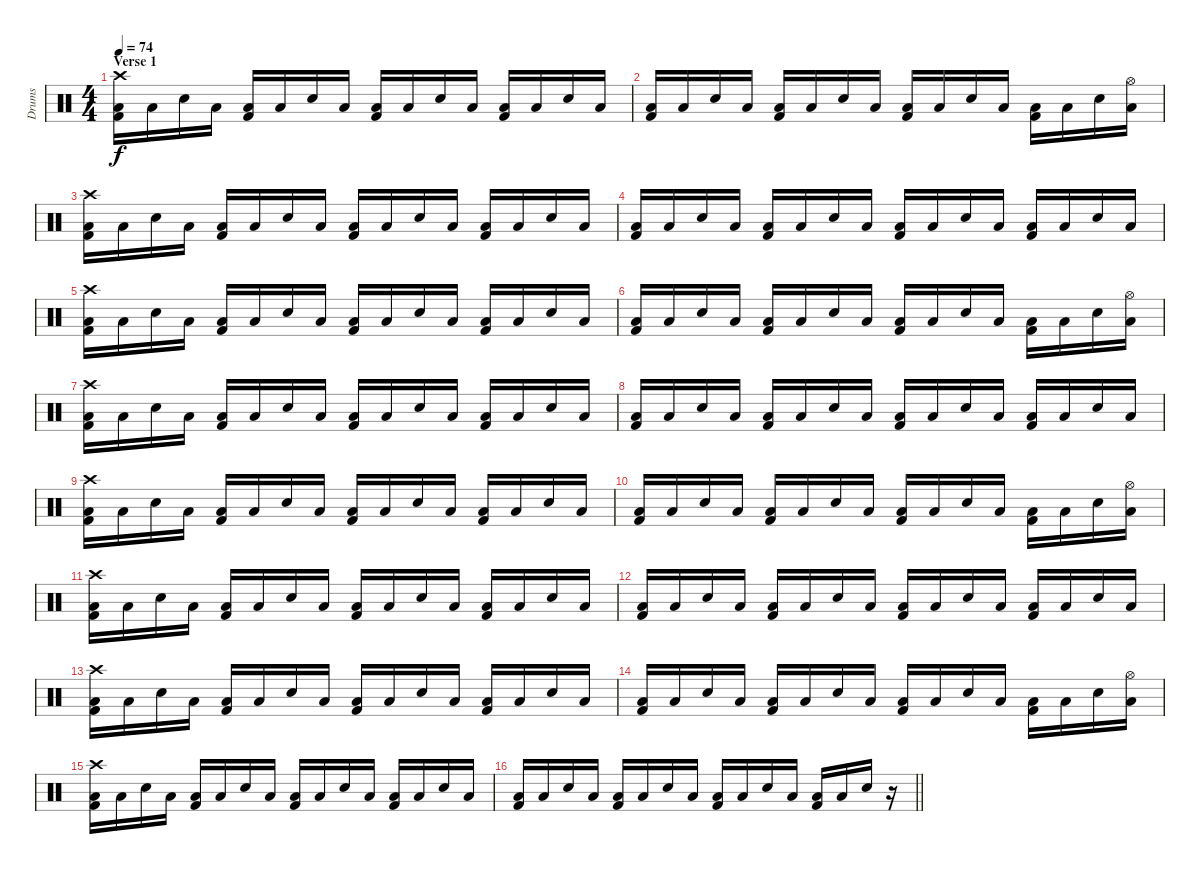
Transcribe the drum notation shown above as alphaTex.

\track ("Drums" "Drums") {instrument percussion}
\staff {score}
\articulation defaults
\ts (4 4)
\section ("" "Verse 1")
\tempo 74
\clef neutral
\ks c
("Crash high (hit)" "Low Floor Tom (hit)" "Kick (hit) 2").16{dy f} "Low Floor Tom (hit)".16 "Snare (hit) 2".16 "Low Floor Tom (hit)".16 ("Low Floor Tom (hit)" "Kick (hit) 2").16 "Low Floor Tom (hit)".16 "Snare (hit) 2".16 "Low Floor Tom (hit)".16 ("Low Floor Tom (hit)" "Kick (hit) 2").16 "Low Floor Tom (hit)".16 "Snare (hit) 2".16 "Low Floor Tom (hit)".16 ("Low Floor Tom (hit)" "Kick (hit) 2").16 "Low Floor Tom (hit)".16 "Snare (hit) 2".16 "Low Floor Tom (hit)".16 |
("Low Floor Tom (hit)" "Kick (hit) 2").16 "Low Floor Tom (hit)".16 "Snare (hit) 2".16 "Low Floor Tom (hit)".16 ("Low Floor Tom (hit)" "Kick (hit) 2").16 "Low Floor Tom (hit)".16 "Snare (hit) 2".16 "Low Floor Tom (hit)".16 ("Low Floor Tom (hit)" "Kick (hit) 2").16 "Low Floor Tom (hit)".16 "Snare (hit) 2".16 "Low Floor Tom (hit)".16 ("Low Floor Tom (hit)" "Kick (hit) 2").16 "Low Floor Tom (hit)".16 "Snare (hit) 2".16 ("Hi-Hat (open)" "Low Floor Tom (hit)").16 |
("Crash high (hit)" "Low Floor Tom (hit)" "Kick (hit) 2").16 "Low Floor Tom (hit)".16 "Snare (hit) 2".16 "Low Floor Tom (hit)".16 ("Low Floor Tom (hit)" "Kick (hit) 2").16 "Low Floor Tom (hit)".16 "Snare (hit) 2".16 "Low Floor Tom (hit)".16 ("Low Floor Tom (hit)" "Kick (hit) 2").16 "Low Floor Tom (hit)".16 "Snare (hit) 2".16 "Low Floor Tom (hit)".16 ("Low Floor Tom (hit)" "Kick (hit) 2").16 "Low Floor Tom (hit)".16 "Snare (hit) 2".16 "Low Floor Tom (hit)".16 |
("Low Floor Tom (hit)" "Kick (hit) 2").16 "Low Floor Tom (hit)".16 "Snare (hit) 2".16 "Low Floor Tom (hit)".16 ("Low Floor Tom (hit)" "Kick (hit) 2").16 "Low Floor Tom (hit)".16 "Snare (hit) 2".16 "Low Floor Tom (hit)".16 ("Low Floor Tom (hit)" "Kick (hit) 2").16 "Low Floor Tom (hit)".16 "Snare (hit) 2".16 "Low Floor Tom (hit)".16 ("Low Floor Tom (hit)" "Kick (hit) 2").16 "Low Floor Tom (hit)".16 "Snare (hit) 2".16 "Low Floor Tom (hit)".16 |
("Crash high (hit)" "Low Floor Tom (hit)" "Kick (hit) 2").16 "Low Floor Tom (hit)".16 "Snare (hit) 2".16 "Low Floor Tom (hit)".16 ("Low Floor Tom (hit)" "Kick (hit) 2").16 "Low Floor Tom (hit)".16 "Snare (hit) 2".16 "Low Floor Tom (hit)".16 ("Low Floor Tom (hit)" "Kick (hit) 2").16 "Low Floor Tom (hit)".16 "Snare (hit) 2".16 "Low Floor Tom (hit)".16 ("Low Floor Tom (hit)" "Kick (hit) 2").16 "Low Floor Tom (hit)".16 "Snare (hit) 2".16 "Low Floor Tom (hit)".16 |
("Low Floor Tom (hit)" "Kick (hit) 2").16 "Low Floor Tom (hit)".16 "Snare (hit) 2".16 "Low Floor Tom (hit)".16 ("Low Floor Tom (hit)" "Kick (hit) 2").16 "Low Floor Tom (hit)".16 "Snare (hit) 2".16 "Low Floor Tom (hit)".16 ("Low Floor Tom (hit)" "Kick (hit) 2").16 "Low Floor Tom (hit)".16 "Snare (hit) 2".16 "Low Floor Tom (hit)".16 ("Low Floor Tom (hit)" "Kick (hit) 2").16 "Low Floor Tom (hit)".16 "Snare (hit) 2".16 ("Hi-Hat (open)" "Low Floor Tom (hit)").16 |
("Crash high (hit)" "Low Floor Tom (hit)" "Kick (hit) 2").16 "Low Floor Tom (hit)".16 "Snare (hit) 2".16 "Low Floor Tom (hit)".16 ("Low Floor Tom (hit)" "Kick (hit) 2").16 "Low Floor Tom (hit)".16 "Snare (hit) 2".16 "Low Floor Tom (hit)".16 ("Low Floor Tom (hit)" "Kick (hit) 2").16 "Low Floor Tom (hit)".16 "Snare (hit) 2".16 "Low Floor Tom (hit)".16 ("Low Floor Tom (hit)" "Kick (hit) 2").16 "Low Floor Tom (hit)".16 "Snare (hit) 2".16 "Low Floor Tom (hit)".16 |
("Low Floor Tom (hit)" "Kick (hit) 2").16 "Low Floor Tom (hit)".16 "Snare (hit) 2".16 "Low Floor Tom (hit)".16 ("Low Floor Tom (hit)" "Kick (hit) 2").16 "Low Floor Tom (hit)".16 "Snare (hit) 2".16 "Low Floor Tom (hit)".16 ("Low Floor Tom (hit)" "Kick (hit) 2").16 "Low Floor Tom (hit)".16 "Snare (hit) 2".16 "Low Floor Tom (hit)".16 ("Low Floor Tom (hit)" "Kick (hit) 2").16 "Low Floor Tom (hit)".16 "Snare (hit) 2".16 "Low Floor Tom (hit)".16 |
("Crash high (hit)" "Low Floor Tom (hit)" "Kick (hit) 2").16 "Low Floor Tom (hit)".16 "Snare (hit) 2".16 "Low Floor Tom (hit)".16 ("Low Floor Tom (hit)" "Kick (hit) 2").16 "Low Floor Tom (hit)".16 "Snare (hit) 2".16 "Low Floor Tom (hit)".16 ("Low Floor Tom (hit)" "Kick (hit) 2").16 "Low Floor Tom (hit)".16 "Snare (hit) 2".16 "Low Floor Tom (hit)".16 ("Low Floor Tom (hit)" "Kick (hit) 2").16 "Low Floor Tom (hit)".16 "Snare (hit) 2".16 "Low Floor Tom (hit)".16 |
("Low Floor Tom (hit)" "Kick (hit) 2").16 "Low Floor Tom (hit)".16 "Snare (hit) 2".16 "Low Floor Tom (hit)".16 ("Low Floor Tom (hit)" "Kick (hit) 2").16 "Low Floor Tom (hit)".16 "Snare (hit) 2".16 "Low Floor Tom (hit)".16 ("Low Floor Tom (hit)" "Kick (hit) 2").16 "Low Floor Tom (hit)".16 "Snare (hit) 2".16 "Low Floor Tom (hit)".16 ("Low Floor Tom (hit)" "Kick (hit) 2").16 "Low Floor Tom (hit)".16 "Snare (hit) 2".16 ("Hi-Hat (open)" "Low Floor Tom (hit)").16 |
("Crash high (hit)" "Low Floor Tom (hit)" "Kick (hit) 2").16 "Low Floor Tom (hit)".16 "Snare (hit) 2".16 "Low Floor Tom (hit)".16 ("Low Floor Tom (hit)" "Kick (hit) 2").16 "Low Floor Tom (hit)".16 "Snare (hit) 2".16 "Low Floor Tom (hit)".16 ("Low Floor Tom (hit)" "Kick (hit) 2").16 "Low Floor Tom (hit)".16 "Snare (hit) 2".16 "Low Floor Tom (hit)".16 ("Low Floor Tom (hit)" "Kick (hit) 2").16 "Low Floor Tom (hit)".16 "Snare (hit) 2".16 "Low Floor Tom (hit)".16 |
("Low Floor Tom (hit)" "Kick (hit) 2").16 "Low Floor Tom (hit)".16 "Snare (hit) 2".16 "Low Floor Tom (hit)".16 ("Low Floor Tom (hit)" "Kick (hit) 2").16 "Low Floor Tom (hit)".16 "Snare (hit) 2".16 "Low Floor Tom (hit)".16 ("Low Floor Tom (hit)" "Kick (hit) 2").16 "Low Floor Tom (hit)".16 "Snare (hit) 2".16 "Low Floor Tom (hit)".16 ("Low Floor Tom (hit)" "Kick (hit) 2").16 "Low Floor Tom (hit)".16 "Snare (hit) 2".16 "Low Floor Tom (hit)".16 |
("Crash high (hit)" "Low Floor Tom (hit)" "Kick (hit) 2").16 "Low Floor Tom (hit)".16 "Snare (hit) 2".16 "Low Floor Tom (hit)".16 ("Low Floor Tom (hit)" "Kick (hit) 2").16 "Low Floor Tom (hit)".16 "Snare (hit) 2".16 "Low Floor Tom (hit)".16 ("Low Floor Tom (hit)" "Kick (hit) 2").16 "Low Floor Tom (hit)".16 "Snare (hit) 2".16 "Low Floor Tom (hit)".16 ("Low Floor Tom (hit)" "Kick (hit) 2").16 "Low Floor Tom (hit)".16 "Snare (hit) 2".16 "Low Floor Tom (hit)".16 |
("Low Floor Tom (hit)" "Kick (hit) 2").16 "Low Floor Tom (hit)".16 "Snare (hit) 2".16 "Low Floor Tom (hit)".16 ("Low Floor Tom (hit)" "Kick (hit) 2").16 "Low Floor Tom (hit)".16 "Snare (hit) 2".16 "Low Floor Tom (hit)".16 ("Low Floor Tom (hit)" "Kick (hit) 2").16 "Low Floor Tom (hit)".16 "Snare (hit) 2".16 "Low Floor Tom (hit)".16 ("Low Floor Tom (hit)" "Kick (hit) 2").16 "Low Floor Tom (hit)".16 "Snare (hit) 2".16 ("Hi-Hat (open)" "Low Floor Tom (hit)").16 |
("Crash high (hit)" "Low Floor Tom (hit)" "Kick (hit) 2").16 "Low Floor Tom (hit)".16 "Snare (hit) 2".16 "Low Floor Tom (hit)".16 ("Low Floor Tom (hit)" "Kick (hit) 2").16 "Low Floor Tom (hit)".16 "Snare (hit) 2".16 "Low Floor Tom (hit)".16 ("Low Floor Tom (hit)" "Kick (hit) 2").16 "Low Floor Tom (hit)".16 "Snare (hit) 2".16 "Low Floor Tom (hit)".16 ("Low Floor Tom (hit)" "Kick (hit) 2").16 "Low Floor Tom (hit)".16 "Snare (hit) 2".16 "Low Floor Tom (hit)".16 |
\barLineRight lightlight
("Low Floor Tom (hit)" "Kick (hit) 2").16 "Low Floor Tom (hit)".16 "Snare (hit) 2".16 "Low Floor Tom (hit)".16 ("Low Floor Tom (hit)" "Kick (hit) 2").16 "Low Floor Tom (hit)".16 "Snare (hit) 2".16 "Low Floor Tom (hit)".16 ("Low Floor Tom (hit)" "Kick (hit) 2").16 "Low Floor Tom (hit)".16 "Snare (hit) 2".16 "Low Floor Tom (hit)".16 ("Low Floor Tom (hit)" "Kick (hit) 2").16 "Low Floor Tom (hit)".16 "Snare (hit) 2".16 r.16
